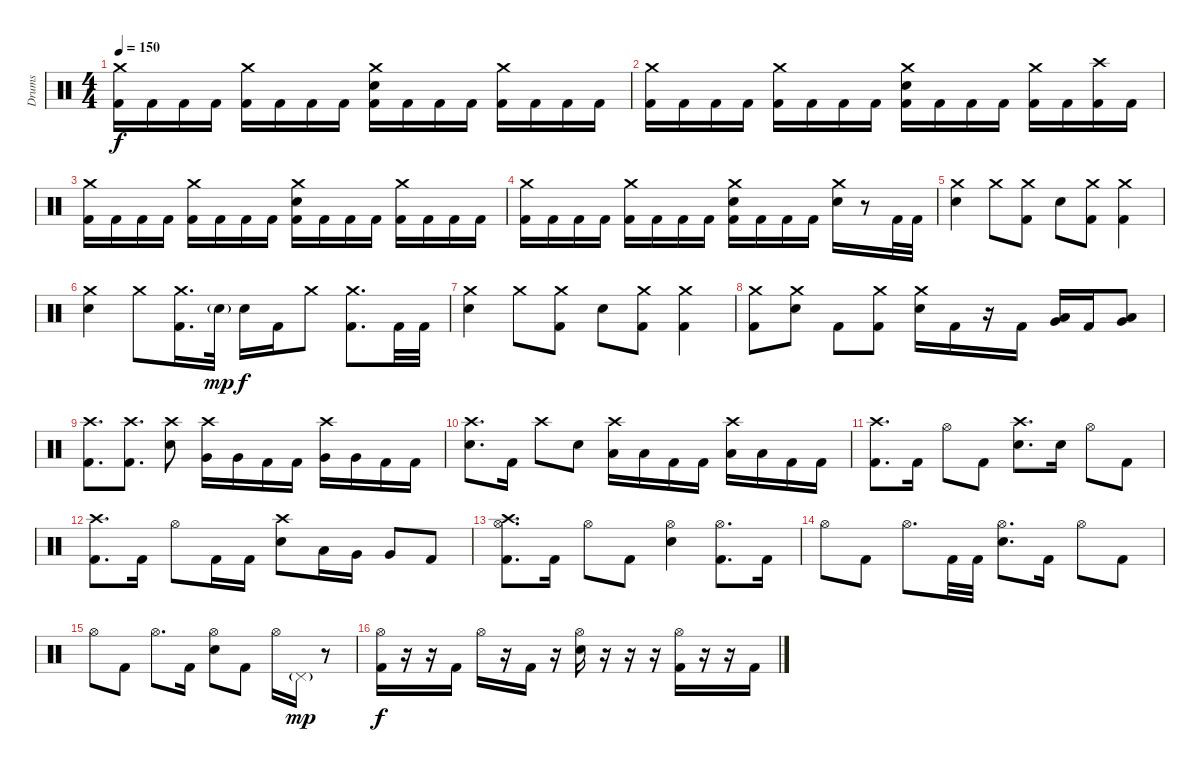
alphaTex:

\track ("Drums" "Drums") {instrument percussion}
\staff {score}
\articulation defaults
\ts (4 4)
\tempo 150
\clef neutral
\ks c
("Crash medium (hit)" "Kick (hit) 2").16{dy f} "Kick (hit) 2".16 "Kick (hit) 2".16 "Kick (hit) 2".16 ("Crash medium (hit)" "Kick (hit) 2").16 "Kick (hit) 2".16 "Kick (hit) 2".16 "Kick (hit) 2".16 ("Crash medium (hit)" "Snare (hit) 2" "Kick (hit) 2").16 "Kick (hit) 2".16 "Kick (hit) 2".16 "Kick (hit) 2".16 ("Crash medium (hit)" "Kick (hit) 2").16 "Kick (hit) 2".16 "Kick (hit) 2".16 "Kick (hit) 2".16 |
("Crash medium (hit)" "Kick (hit) 2").16 "Kick (hit) 2".16 "Kick (hit) 2".16 "Kick (hit) 2".16 ("Crash medium (hit)" "Kick (hit) 2").16 "Kick (hit) 2".16 "Kick (hit) 2".16 "Kick (hit) 2".16 ("Crash medium (hit)" "Snare (hit) 2" "Kick (hit) 2").16 "Kick (hit) 2".16 "Kick (hit) 2".16 "Kick (hit) 2".16 ("Crash medium (hit)" "Kick (hit) 2").16 "Kick (hit) 2".16 ("Crash high (hit)" "Kick (hit) 2").16 "Kick (hit) 2".16 |
("Crash medium (hit)" "Kick (hit) 2").16 "Kick (hit) 2".16 "Kick (hit) 2".16 "Kick (hit) 2".16 ("Crash medium (hit)" "Kick (hit) 2").16 "Kick (hit) 2".16 "Kick (hit) 2".16 "Kick (hit) 2".16 ("Crash medium (hit)" "Snare (hit) 2" "Kick (hit) 2").16 "Kick (hit) 2".16 "Kick (hit) 2".16 "Kick (hit) 2".16 ("Crash medium (hit)" "Kick (hit) 2").16 "Kick (hit) 2".16 "Kick (hit) 2".16 "Kick (hit) 2".16 |
("Crash medium (hit)" "Kick (hit) 2").16 "Kick (hit) 2".16 "Kick (hit) 2".16 "Kick (hit) 2".16 ("Crash medium (hit)" "Kick (hit) 2").16 "Kick (hit) 2".16 "Kick (hit) 2".16 "Kick (hit) 2".16 ("Crash medium (hit)" "Snare (hit) 2" "Kick (hit) 2").16 "Kick (hit) 2".16 "Kick (hit) 2".16 "Kick (hit) 2".16 ("Crash medium (hit)" "Snare (hit) 2").16 r.8 "Kick (hit) 2".32 "Kick (hit) 2".32 |
("Crash medium (hit)" "Snare (hit) 2").4 "Crash medium (hit)".8 ("Crash medium (hit)" "Kick (hit) 2").8 "Snare (hit) 2".8 ("Crash medium (hit)" "Kick (hit) 2").8 ("Crash medium (hit)" "Kick (hit) 2").4 |
("Crash medium (hit)" "Snare (hit) 2").4 "Crash medium (hit)".8 ("Crash medium (hit)" "Kick (hit) 2").16{d} "Snare (hit) 2"{g}.32{dy mp} "Snare (hit) 2".16{dy f} "Kick (hit) 2".16 "Crash medium (hit)".8 ("Crash medium (hit)" "Kick (hit) 2").8{d} "Kick (hit) 2".32 "Kick (hit) 2".32 |
("Crash medium (hit)" "Snare (hit) 2").4 "Crash medium (hit)".8 ("Crash medium (hit)" "Kick (hit) 2").8 "Snare (hit) 2".8 ("Crash medium (hit)" "Kick (hit) 2").8 ("Crash medium (hit)" "Kick (hit) 2").4 |
("Crash medium (hit)" "Kick (hit) 2").8 ("Crash medium (hit)" "Snare (hit) 2").8 "Kick (hit) 2".8 ("Crash medium (hit)" "Kick (hit) 2").8 ("Crash medium (hit)" "Snare (hit) 2").16 "Kick (hit) 2".16 r.16 "Kick (hit) 2".16 ("Very Low Tom (hit)" "Low Tom (hit)").16 "Kick (hit) 2".16 ("Low Floor Tom (hit)" "Very Low Tom (hit)").8 |
("Crash high (hit)" "Kick (hit) 2").8{d} ("Crash high (hit)" "Kick (hit) 2").8{d} ("Crash high (hit)" "Snare (hit) 2").8 ("Crash high (hit)" "Very Low Tom (hit)").16 "Very Low Tom (hit)".16 "Kick (hit) 2".16 "Kick (hit) 2".16 ("Crash high (hit)" "Very Low Tom (hit)").16 "Very Low Tom (hit)".16 "Kick (hit) 2".16 "Kick (hit) 2".16 |
("Crash high (hit)" "Snare (hit) 2").8{d} "Kick (hit) 2".16 "Crash high (hit)".8 "Snare (hit) 2".8 ("Crash high (hit)" "Low Tom (hit)").16 "Low Tom (hit)".16 "Kick (hit) 2".16 "Kick (hit) 2".16 ("Crash high (hit)" "Low Floor Tom (hit)").16 "Low Floor Tom (hit)".16 "Kick (hit) 2".16 "Kick (hit) 2".16 |
("Crash high (hit)" "Kick (hit) 2").8{d} "Kick (hit) 2".16 "Hi-Hat (open)".8 "Kick (hit) 2".8 ("Crash high (hit)" "Snare (hit) 2").8{d} "Snare (hit) 2".16 "Hi-Hat (open)".8 "Kick (hit) 2".8 |
("Crash high (hit)" "Kick (hit) 2").8{d} "Kick (hit) 2".16 "Hi-Hat (open)".8 "Kick (hit) 2".16 "Kick (hit) 2".16 ("Crash high (hit)" "Snare (hit) 2").8 "Low Tom (hit)".16 "Very Low Tom (hit)".16 "Very Low Tom (hit)".8 "Kick (hit) 2".8 |
("Crash high (hit)" "Hi-Hat (open)" "Kick (hit) 2").8{d} "Kick (hit) 2".16 "Hi-Hat (open)".8 "Kick (hit) 2".8 ("Hi-Hat (open)" "Snare (hit) 2").4 ("Hi-Hat (open)" "Kick (hit) 2").8{d} "Kick (hit) 2".16 |
"Hi-Hat (open)".8 "Kick (hit) 2".8 "Hi-Hat (open)".8{d} "Kick (hit) 2".32 "Kick (hit) 2".32 ("Hi-Hat (open)" "Snare (hit) 2").8{d} "Kick (hit) 2".16 "Hi-Hat (open)".8 "Kick (hit) 2".8 |
"Hi-Hat (open)".8 "Kick (hit) 2".8 "Hi-Hat (open)".8{d} "Kick (hit) 2".16 ("Hi-Hat (open)" "Snare (hit) 2").8 "Kick (hit) 2".8 "Hi-Hat (open)".16 "Pedal Hi-Hat (hit)"{g}.16{dy mp} r.8 |
("Hi-Hat (open)" "Kick (hit) 2").16{dy f} r.16 r.16 "Kick (hit) 2".16 "Hi-Hat (open)".16 r.16 "Kick (hit) 2".16 r.16 ("Hi-Hat (open)" "Snare (hit) 2").16 r.16 r.16 r.16 ("Hi-Hat (open)" "Kick (hit) 2").16 r.16 r.16 "Kick (hit) 2".16
